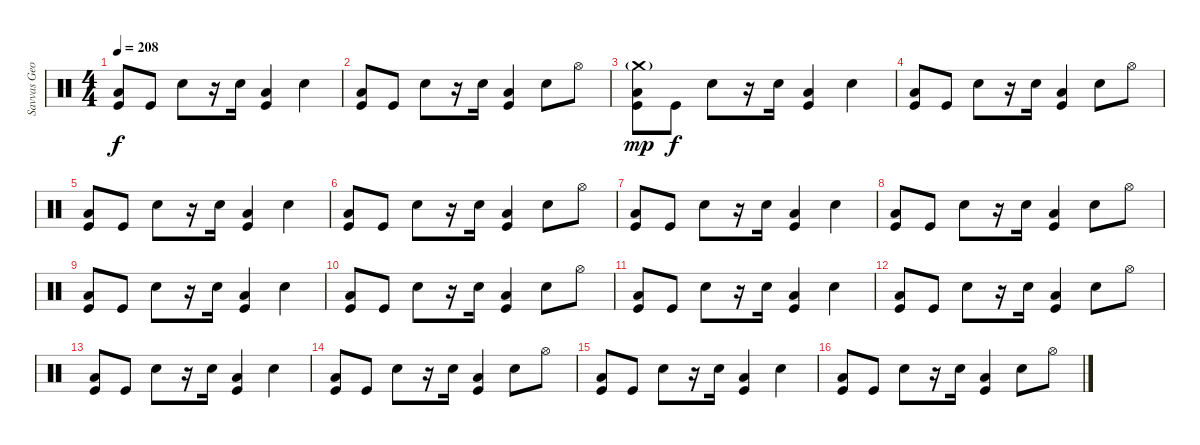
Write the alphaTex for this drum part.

\track ("Savvas Georgiadis" "Savvas Geo") {instrument percussion}
\staff {score}
\articulation defaults
\ts (4 4)
\tempo 208
\clef neutral
\ks c
("Low Tom (hit)" "Kick (hit)").8{dy f} "Kick (hit)".8 "Electric Snare (hit)".8 r.16 "Electric Snare (hit)".16 ("Low Tom (hit)" "Kick (hit)").4 "Electric Snare (hit)".4 |
("Low Tom (hit)" "Kick (hit)").8 "Kick (hit)".8 "Electric Snare (hit)".8 r.16 "Electric Snare (hit)".16 ("Low Tom (hit)" "Kick (hit)").4 "Electric Snare (hit)".8 "Hi-Hat (open)".8 |
("Crash medium (hit)"{g} "Low Tom (hit)" "Kick (hit)").8{dy mp} "Kick (hit)".8{dy f} "Electric Snare (hit)".8 r.16 "Electric Snare (hit)".16 ("Low Tom (hit)" "Kick (hit)").4 "Electric Snare (hit)".4 |
("Low Tom (hit)" "Kick (hit)").8 "Kick (hit)".8 "Electric Snare (hit)".8 r.16 "Electric Snare (hit)".16 ("Low Tom (hit)" "Kick (hit)").4 "Electric Snare (hit)".8 "Hi-Hat (open)".8 |
("Low Tom (hit)" "Kick (hit)").8 "Kick (hit)".8 "Electric Snare (hit)".8 r.16 "Electric Snare (hit)".16 ("Low Tom (hit)" "Kick (hit)").4 "Electric Snare (hit)".4 |
("Low Tom (hit)" "Kick (hit)").8 "Kick (hit)".8 "Electric Snare (hit)".8 r.16 "Electric Snare (hit)".16 ("Low Tom (hit)" "Kick (hit)").4 "Electric Snare (hit)".8 "Hi-Hat (open)".8 |
("Low Tom (hit)" "Kick (hit)").8 "Kick (hit)".8 "Electric Snare (hit)".8 r.16 "Electric Snare (hit)".16 ("Low Tom (hit)" "Kick (hit)").4 "Electric Snare (hit)".4 |
("Low Tom (hit)" "Kick (hit)").8 "Kick (hit)".8 "Electric Snare (hit)".8 r.16 "Electric Snare (hit)".16 ("Low Tom (hit)" "Kick (hit)").4 "Electric Snare (hit)".8 "Hi-Hat (open)".8 |
("Low Tom (hit)" "Kick (hit)").8 "Kick (hit)".8 "Electric Snare (hit)".8 r.16 "Electric Snare (hit)".16 ("Low Tom (hit)" "Kick (hit)").4 "Electric Snare (hit)".4 |
("Low Tom (hit)" "Kick (hit)").8 "Kick (hit)".8 "Electric Snare (hit)".8 r.16 "Electric Snare (hit)".16 ("Low Tom (hit)" "Kick (hit)").4 "Electric Snare (hit)".8 "Hi-Hat (open)".8 |
("Low Tom (hit)" "Kick (hit)").8 "Kick (hit)".8 "Electric Snare (hit)".8 r.16 "Electric Snare (hit)".16 ("Low Tom (hit)" "Kick (hit)").4 "Electric Snare (hit)".4 |
("Low Tom (hit)" "Kick (hit)").8 "Kick (hit)".8 "Electric Snare (hit)".8 r.16 "Electric Snare (hit)".16 ("Low Tom (hit)" "Kick (hit)").4 "Electric Snare (hit)".8 "Hi-Hat (open)".8 |
("Low Tom (hit)" "Kick (hit)").8 "Kick (hit)".8 "Electric Snare (hit)".8 r.16 "Electric Snare (hit)".16 ("Low Tom (hit)" "Kick (hit)").4 "Electric Snare (hit)".4 |
("Low Tom (hit)" "Kick (hit)").8 "Kick (hit)".8 "Electric Snare (hit)".8 r.16 "Electric Snare (hit)".16 ("Low Tom (hit)" "Kick (hit)").4 "Electric Snare (hit)".8 "Hi-Hat (open)".8 |
("Low Tom (hit)" "Kick (hit)").8 "Kick (hit)".8 "Electric Snare (hit)".8 r.16 "Electric Snare (hit)".16 ("Low Tom (hit)" "Kick (hit)").4 "Electric Snare (hit)".4 |
("Low Tom (hit)" "Kick (hit)").8 "Kick (hit)".8 "Electric Snare (hit)".8 r.16 "Electric Snare (hit)".16 ("Low Tom (hit)" "Kick (hit)").4 "Electric Snare (hit)".8 "Hi-Hat (open)".8
